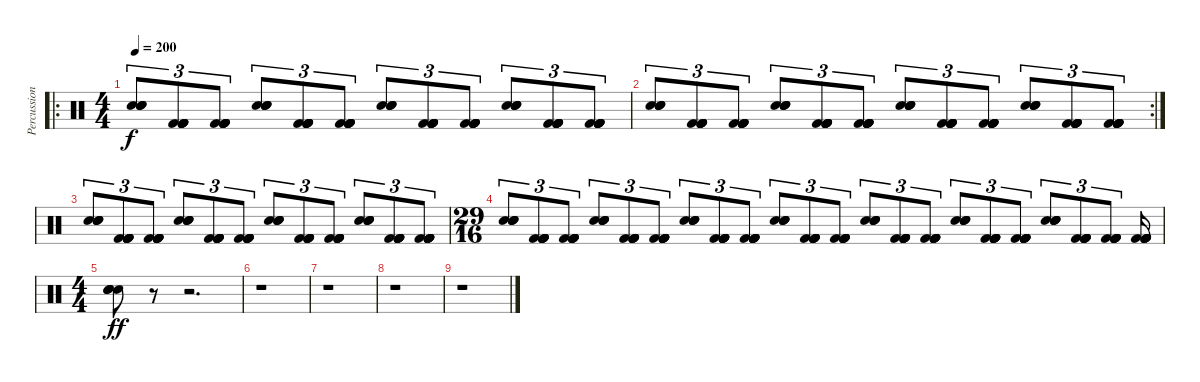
\track ("Percussion" "Percussion") {instrument percussion}
\staff {score}
\articulation defaults
\ro
\ts (4 4)
\tempo 200
\clef neutral
\ks c
("Snare (hit) 2" "Snare (hit) 2" "Snare (hit) 2" "Snare (hit) 2").8{tu (3 2) dy f} ("Kick (hit) 2" "Kick (hit) 2" "Kick (hit) 2" "Kick (hit) 2" "Kick (hit) 2" "Kick (hit) 2").8{tu (3 2)} ("Kick (hit) 2" "Kick (hit) 2" "Kick (hit) 2" "Kick (hit) 2" "Kick (hit) 2" "Kick (hit) 2").8{tu (3 2)} ("Snare (hit) 2" "Snare (hit) 2" "Snare (hit) 2" "Snare (hit) 2").8{tu (3 2)} ("Kick (hit) 2" "Kick (hit) 2" "Kick (hit) 2" "Kick (hit) 2" "Kick (hit) 2" "Kick (hit) 2").8{tu (3 2)} ("Kick (hit) 2" "Kick (hit) 2" "Kick (hit) 2" "Kick (hit) 2" "Kick (hit) 2" "Kick (hit) 2").8{tu (3 2)} ("Snare (hit) 2" "Snare (hit) 2" "Snare (hit) 2" "Snare (hit) 2").8{tu (3 2)} ("Kick (hit) 2" "Kick (hit) 2" "Kick (hit) 2" "Kick (hit) 2" "Kick (hit) 2" "Kick (hit) 2").8{tu (3 2)} ("Kick (hit) 2" "Kick (hit) 2" "Kick (hit) 2" "Kick (hit) 2" "Kick (hit) 2" "Kick (hit) 2").8{tu (3 2)} ("Snare (hit) 2" "Snare (hit) 2" "Snare (hit) 2" "Snare (hit) 2").8{tu (3 2)} ("Kick (hit) 2" "Kick (hit) 2" "Kick (hit) 2" "Kick (hit) 2" "Kick (hit) 2" "Kick (hit) 2").8{tu (3 2)} ("Kick (hit) 2" "Kick (hit) 2" "Kick (hit) 2" "Kick (hit) 2" "Kick (hit) 2" "Kick (hit) 2").8{tu (3 2)} |
\rc 2
("Snare (hit) 2" "Snare (hit) 2" "Snare (hit) 2" "Snare (hit) 2").8{tu (3 2)} ("Kick (hit) 2" "Kick (hit) 2" "Kick (hit) 2" "Kick (hit) 2" "Kick (hit) 2" "Kick (hit) 2").8{tu (3 2)} ("Kick (hit) 2" "Kick (hit) 2" "Kick (hit) 2" "Kick (hit) 2" "Kick (hit) 2" "Kick (hit) 2").8{tu (3 2)} ("Snare (hit) 2" "Snare (hit) 2" "Snare (hit) 2" "Snare (hit) 2").8{tu (3 2)} ("Kick (hit) 2" "Kick (hit) 2" "Kick (hit) 2" "Kick (hit) 2" "Kick (hit) 2" "Kick (hit) 2").8{tu (3 2)} ("Kick (hit) 2" "Kick (hit) 2" "Kick (hit) 2" "Kick (hit) 2" "Kick (hit) 2" "Kick (hit) 2").8{tu (3 2)} ("Snare (hit) 2" "Snare (hit) 2" "Snare (hit) 2" "Snare (hit) 2").8{tu (3 2)} ("Kick (hit) 2" "Kick (hit) 2" "Kick (hit) 2" "Kick (hit) 2" "Kick (hit) 2" "Kick (hit) 2").8{tu (3 2)} ("Kick (hit) 2" "Kick (hit) 2" "Kick (hit) 2" "Kick (hit) 2" "Kick (hit) 2" "Kick (hit) 2").8{tu (3 2)} ("Snare (hit) 2" "Snare (hit) 2" "Snare (hit) 2" "Snare (hit) 2").8{tu (3 2)} ("Kick (hit) 2" "Kick (hit) 2" "Kick (hit) 2" "Kick (hit) 2" "Kick (hit) 2" "Kick (hit) 2").8{tu (3 2)} ("Kick (hit) 2" "Kick (hit) 2" "Kick (hit) 2" "Kick (hit) 2" "Kick (hit) 2" "Kick (hit) 2").8{tu (3 2)} |
("Snare (hit) 2" "Snare (hit) 2" "Snare (hit) 2" "Snare (hit) 2").8{tu (3 2)} ("Kick (hit) 2" "Kick (hit) 2" "Kick (hit) 2" "Kick (hit) 2" "Kick (hit) 2" "Kick (hit) 2").8{tu (3 2)} ("Kick (hit) 2" "Kick (hit) 2" "Kick (hit) 2" "Kick (hit) 2" "Kick (hit) 2" "Kick (hit) 2").8{tu (3 2)} ("Snare (hit) 2" "Snare (hit) 2" "Snare (hit) 2" "Snare (hit) 2").8{tu (3 2)} ("Kick (hit) 2" "Kick (hit) 2" "Kick (hit) 2" "Kick (hit) 2" "Kick (hit) 2" "Kick (hit) 2").8{tu (3 2)} ("Kick (hit) 2" "Kick (hit) 2" "Kick (hit) 2" "Kick (hit) 2" "Kick (hit) 2" "Kick (hit) 2").8{tu (3 2)} ("Snare (hit) 2" "Snare (hit) 2" "Snare (hit) 2" "Snare (hit) 2").8{tu (3 2)} ("Kick (hit) 2" "Kick (hit) 2" "Kick (hit) 2" "Kick (hit) 2" "Kick (hit) 2" "Kick (hit) 2").8{tu (3 2)} ("Kick (hit) 2" "Kick (hit) 2" "Kick (hit) 2" "Kick (hit) 2" "Kick (hit) 2" "Kick (hit) 2").8{tu (3 2)} ("Snare (hit) 2" "Snare (hit) 2" "Snare (hit) 2" "Snare (hit) 2").8{tu (3 2)} ("Kick (hit) 2" "Kick (hit) 2" "Kick (hit) 2" "Kick (hit) 2" "Kick (hit) 2" "Kick (hit) 2").8{tu (3 2)} ("Kick (hit) 2" "Kick (hit) 2" "Kick (hit) 2" "Kick (hit) 2" "Kick (hit) 2" "Kick (hit) 2").8{tu (3 2)} |
\ts (29 16)
("Snare (hit) 2" "Snare (hit) 2" "Snare (hit) 2" "Snare (hit) 2").8{tu (3 2)} ("Kick (hit) 2" "Kick (hit) 2" "Kick (hit) 2" "Kick (hit) 2" "Kick (hit) 2" "Kick (hit) 2").8{tu (3 2)} ("Kick (hit) 2" "Kick (hit) 2" "Kick (hit) 2" "Kick (hit) 2" "Kick (hit) 2" "Kick (hit) 2").8{tu (3 2)} ("Snare (hit) 2" "Snare (hit) 2" "Snare (hit) 2" "Snare (hit) 2").8{tu (3 2)} ("Kick (hit) 2" "Kick (hit) 2" "Kick (hit) 2" "Kick (hit) 2" "Kick (hit) 2" "Kick (hit) 2").8{tu (3 2)} ("Kick (hit) 2" "Kick (hit) 2" "Kick (hit) 2" "Kick (hit) 2" "Kick (hit) 2" "Kick (hit) 2").8{tu (3 2)} ("Snare (hit) 2" "Snare (hit) 2" "Snare (hit) 2" "Snare (hit) 2").8{tu (3 2)} ("Kick (hit) 2" "Kick (hit) 2" "Kick (hit) 2" "Kick (hit) 2" "Kick (hit) 2" "Kick (hit) 2").8{tu (3 2)} ("Kick (hit) 2" "Kick (hit) 2" "Kick (hit) 2" "Kick (hit) 2" "Kick (hit) 2" "Kick (hit) 2").8{tu (3 2)} ("Snare (hit) 2" "Snare (hit) 2" "Snare (hit) 2" "Snare (hit) 2").8{tu (3 2)} ("Kick (hit) 2" "Kick (hit) 2" "Kick (hit) 2" "Kick (hit) 2" "Kick (hit) 2" "Kick (hit) 2").8{tu (3 2)} ("Kick (hit) 2" "Kick (hit) 2" "Kick (hit) 2" "Kick (hit) 2" "Kick (hit) 2" "Kick (hit) 2").8{tu (3 2)} ("Snare (hit) 2" "Snare (hit) 2" "Snare (hit) 2" "Snare (hit) 2").8{tu (3 2)} ("Kick (hit) 2" "Kick (hit) 2" "Kick (hit) 2" "Kick (hit) 2" "Kick (hit) 2" "Kick (hit) 2").8{tu (3 2)} ("Kick (hit) 2" "Kick (hit) 2" "Kick (hit) 2" "Kick (hit) 2" "Kick (hit) 2" "Kick (hit) 2").8{tu (3 2)} ("Snare (hit) 2" "Snare (hit) 2" "Snare (hit) 2" "Snare (hit) 2").8{tu (3 2)} ("Kick (hit) 2" "Kick (hit) 2" "Kick (hit) 2" "Kick (hit) 2" "Kick (hit) 2" "Kick (hit) 2").8{tu (3 2)} ("Kick (hit) 2" "Kick (hit) 2" "Kick (hit) 2" "Kick (hit) 2" "Kick (hit) 2" "Kick (hit) 2").8{tu (3 2)} ("Snare (hit) 2" "Snare (hit) 2" "Snare (hit) 2" "Snare (hit) 2").8{tu (3 2)} ("Kick (hit) 2" "Kick (hit) 2" "Kick (hit) 2" "Kick (hit) 2" "Kick (hit) 2" "Kick (hit) 2").8{tu (3 2)} ("Kick (hit) 2" "Kick (hit) 2" "Kick (hit) 2" "Kick (hit) 2" "Kick (hit) 2" "Kick (hit) 2").8{tu (3 2)} ("Kick (hit) 2" "Kick (hit) 2" "Kick (hit) 2" "Kick (hit) 2" "Kick (hit) 2" "Kick (hit) 2").16 |
\ts (4 4)
("Snare (hit) 2" "Snare (hit) 2" "Snare (hit) 2" "Snare (hit) 2").8{dy ff} r.8 r.2{d} |
r.1 |
r.1 |
r.1 |
r.1
